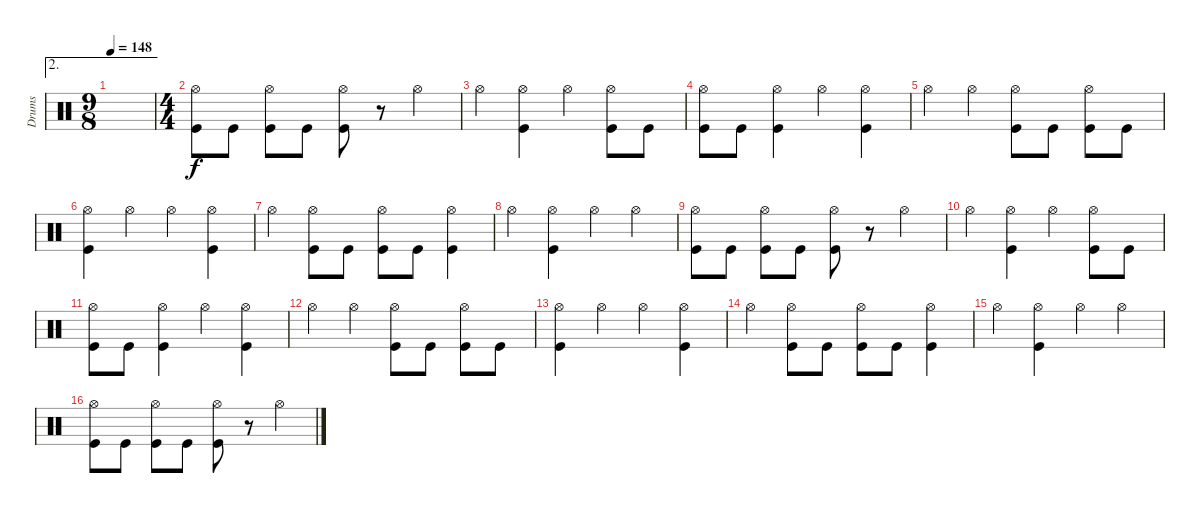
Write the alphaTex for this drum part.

\track ("Drums" "Drums") {instrument percussion}
\staff {score}
\articulation defaults
\ae 2
\ts (9 8)
\tempo 148
\clef neutral
\ks c
|
\ts (4 4)
("Hi-Hat (open)" "Kick (hit)").8 "Kick (hit)".8 ("Hi-Hat (open)" "Kick (hit)").8 "Kick (hit)".8 ("Hi-Hat (open)" "Kick (hit)").8 r.8 "Hi-Hat (open)".4 |
"Hi-Hat (open)".4 ("Hi-Hat (open)" "Kick (hit)").4 "Hi-Hat (open)".4 ("Hi-Hat (open)" "Kick (hit)").8 "Kick (hit)".8 |
("Hi-Hat (open)" "Kick (hit)").8 "Kick (hit)".8 ("Hi-Hat (open)" "Kick (hit)").4 "Hi-Hat (open)".4 ("Hi-Hat (open)" "Kick (hit)").4 |
"Hi-Hat (open)".4 "Hi-Hat (open)".4 ("Hi-Hat (open)" "Kick (hit)").8 "Kick (hit)".8 ("Hi-Hat (open)" "Kick (hit)").8 "Kick (hit)".8 |
("Hi-Hat (open)" "Kick (hit)").4 "Hi-Hat (open)".4 "Hi-Hat (open)".4 ("Hi-Hat (open)" "Kick (hit)").4 |
"Hi-Hat (open)".4 ("Hi-Hat (open)" "Kick (hit)").8 "Kick (hit)".8 ("Hi-Hat (open)" "Kick (hit)").8 "Kick (hit)".8 ("Hi-Hat (open)" "Kick (hit)").4 |
"Hi-Hat (open)".4 ("Hi-Hat (open)" "Kick (hit)").4 "Hi-Hat (open)".4 "Hi-Hat (open)".4 |
("Hi-Hat (open)" "Kick (hit)").8 "Kick (hit)".8 ("Hi-Hat (open)" "Kick (hit)").8 "Kick (hit)".8 ("Hi-Hat (open)" "Kick (hit)").8 r.8 "Hi-Hat (open)".4 |
"Hi-Hat (open)".4 ("Hi-Hat (open)" "Kick (hit)").4 "Hi-Hat (open)".4 ("Hi-Hat (open)" "Kick (hit)").8 "Kick (hit)".8 |
("Hi-Hat (open)" "Kick (hit)").8 "Kick (hit)".8 ("Hi-Hat (open)" "Kick (hit)").4 "Hi-Hat (open)".4 ("Hi-Hat (open)" "Kick (hit)").4 |
"Hi-Hat (open)".4 "Hi-Hat (open)".4 ("Hi-Hat (open)" "Kick (hit)").8 "Kick (hit)".8 ("Hi-Hat (open)" "Kick (hit)").8 "Kick (hit)".8 |
("Hi-Hat (open)" "Kick (hit)").4 "Hi-Hat (open)".4 "Hi-Hat (open)".4 ("Hi-Hat (open)" "Kick (hit)").4 |
"Hi-Hat (open)".4 ("Hi-Hat (open)" "Kick (hit)").8 "Kick (hit)".8 ("Hi-Hat (open)" "Kick (hit)").8 "Kick (hit)".8 ("Hi-Hat (open)" "Kick (hit)").4 |
"Hi-Hat (open)".4 ("Hi-Hat (open)" "Kick (hit)").4 "Hi-Hat (open)".4 "Hi-Hat (open)".4 |
("Hi-Hat (open)" "Kick (hit)").8 "Kick (hit)".8 ("Hi-Hat (open)" "Kick (hit)").8 "Kick (hit)".8 ("Hi-Hat (open)" "Kick (hit)").8 r.8 "Hi-Hat (open)".4
